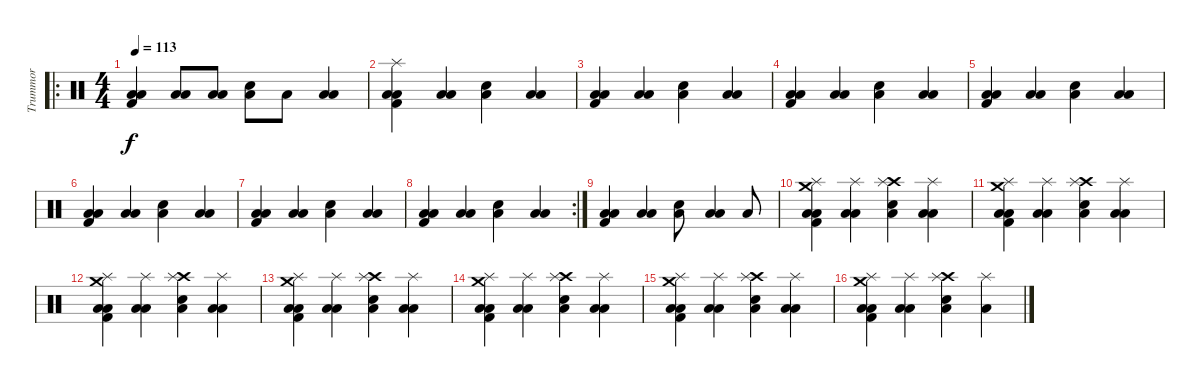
\track ("Trummor" "Trummor") {instrument percussion}
\staff {score}
\articulation defaults
\ro
\ts (4 4)
\tempo 113
\clef neutral
\ks c
("Low Floor Tom (hit)" "Low Floor Tom (hit)" "Kick (hit) 2").4{dy f} ("Low Floor Tom (hit)" "Low Floor Tom (hit)").8 ("Low Floor Tom (hit)" "Low Floor Tom (hit)").8 ("Low Floor Tom (hit)" "Snare (hit) 2").8 "Low Floor Tom (hit)".8 ("Low Floor Tom (hit)" "Low Floor Tom (hit)").4 |
("Splash (hit)" "Low Floor Tom (hit)" "Low Floor Tom (hit)" "Kick (hit) 2").4 ("Low Floor Tom (hit)" "Low Floor Tom (hit)").4 ("Low Floor Tom (hit)" "Snare (hit) 2").4 ("Low Floor Tom (hit)" "Low Floor Tom (hit)").4 |
("Low Floor Tom (hit)" "Low Floor Tom (hit)" "Kick (hit) 2").4 ("Low Floor Tom (hit)" "Low Floor Tom (hit)").4 ("Low Floor Tom (hit)" "Snare (hit) 2").4 ("Low Floor Tom (hit)" "Low Floor Tom (hit)").4 |
("Low Floor Tom (hit)" "Low Floor Tom (hit)" "Kick (hit) 2").4 ("Low Floor Tom (hit)" "Low Floor Tom (hit)").4 ("Low Floor Tom (hit)" "Snare (hit) 2").4 ("Low Floor Tom (hit)" "Low Floor Tom (hit)").4 |
("Low Floor Tom (hit)" "Low Floor Tom (hit)" "Kick (hit) 2").4 ("Low Floor Tom (hit)" "Low Floor Tom (hit)").4 ("Low Floor Tom (hit)" "Snare (hit) 2").4 ("Low Floor Tom (hit)" "Low Floor Tom (hit)").4 |
("Low Floor Tom (hit)" "Low Floor Tom (hit)" "Kick (hit) 2").4 ("Low Floor Tom (hit)" "Low Floor Tom (hit)").4 ("Low Floor Tom (hit)" "Snare (hit) 2").4 ("Low Floor Tom (hit)" "Low Floor Tom (hit)").4 |
("Low Floor Tom (hit)" "Low Floor Tom (hit)" "Kick (hit) 2").4 ("Low Floor Tom (hit)" "Low Floor Tom (hit)").4 ("Low Floor Tom (hit)" "Snare (hit) 2").4 ("Low Floor Tom (hit)" "Low Floor Tom (hit)").4 |
\rc 2
("Low Floor Tom (hit)" "Low Floor Tom (hit)" "Kick (hit) 2").4 ("Low Floor Tom (hit)" "Low Floor Tom (hit)").4 ("Low Floor Tom (hit)" "Snare (hit) 2").4 ("Low Floor Tom (hit)" "Low Floor Tom (hit)").4 |
("Low Floor Tom (hit)" "Low Floor Tom (hit)" "Kick (hit) 2").4 ("Low Floor Tom (hit)" "Low Floor Tom (hit)").4 ("Low Floor Tom (hit)" "Snare (hit) 2").8 ("Low Floor Tom (hit)" "Low Floor Tom (hit)").4 "Low Floor Tom (hit)".8 |
("Crash medium (hit)" "Splash (hit)" "Low Floor Tom (hit)" "Low Floor Tom (hit)" "Kick (hit) 2").4 ("Splash (hit)" "Low Floor Tom (hit)" "Low Floor Tom (hit)").4 ("Crash high (hit)" "Splash (hit)" "Low Floor Tom (hit)" "Snare (hit) 2").4 ("Splash (hit)" "Low Floor Tom (hit)" "Low Floor Tom (hit)").4 |
("Crash medium (hit)" "Splash (hit)" "Low Floor Tom (hit)" "Low Floor Tom (hit)" "Kick (hit) 2").4 ("Splash (hit)" "Low Floor Tom (hit)" "Low Floor Tom (hit)").4 ("Crash high (hit)" "Splash (hit)" "Low Floor Tom (hit)" "Snare (hit) 2").4 ("Splash (hit)" "Low Floor Tom (hit)" "Low Floor Tom (hit)").4 |
("Crash medium (hit)" "Splash (hit)" "Low Floor Tom (hit)" "Low Floor Tom (hit)" "Kick (hit) 2").4 ("Splash (hit)" "Low Floor Tom (hit)" "Low Floor Tom (hit)").4 ("Crash high (hit)" "Splash (hit)" "Low Floor Tom (hit)" "Snare (hit) 2").4 ("Splash (hit)" "Low Floor Tom (hit)" "Low Floor Tom (hit)").4 |
("Crash medium (hit)" "Splash (hit)" "Low Floor Tom (hit)" "Low Floor Tom (hit)" "Kick (hit) 2").4 ("Splash (hit)" "Low Floor Tom (hit)" "Low Floor Tom (hit)").4 ("Crash high (hit)" "Splash (hit)" "Low Floor Tom (hit)" "Snare (hit) 2").4 ("Splash (hit)" "Low Floor Tom (hit)" "Low Floor Tom (hit)").4 |
("Crash medium (hit)" "Splash (hit)" "Low Floor Tom (hit)" "Low Floor Tom (hit)" "Kick (hit) 2").4 ("Splash (hit)" "Low Floor Tom (hit)" "Low Floor Tom (hit)").4 ("Crash high (hit)" "Splash (hit)" "Low Floor Tom (hit)" "Snare (hit) 2").4 ("Splash (hit)" "Low Floor Tom (hit)" "Low Floor Tom (hit)").4 |
("Crash medium (hit)" "Splash (hit)" "Low Floor Tom (hit)" "Low Floor Tom (hit)" "Kick (hit) 2").4 ("Splash (hit)" "Low Floor Tom (hit)" "Low Floor Tom (hit)").4 ("Crash high (hit)" "Splash (hit)" "Low Floor Tom (hit)" "Snare (hit) 2").4 ("Splash (hit)" "Low Floor Tom (hit)" "Low Floor Tom (hit)").4 |
("Crash medium (hit)" "Splash (hit)" "Low Floor Tom (hit)" "Low Floor Tom (hit)" "Kick (hit) 2").4 ("Splash (hit)" "Low Floor Tom (hit)" "Low Floor Tom (hit)").4 ("Crash high (hit)" "Splash (hit)" "Low Floor Tom (hit)" "Snare (hit) 2").4 ("Splash (hit)" "Low Floor Tom (hit)").4
